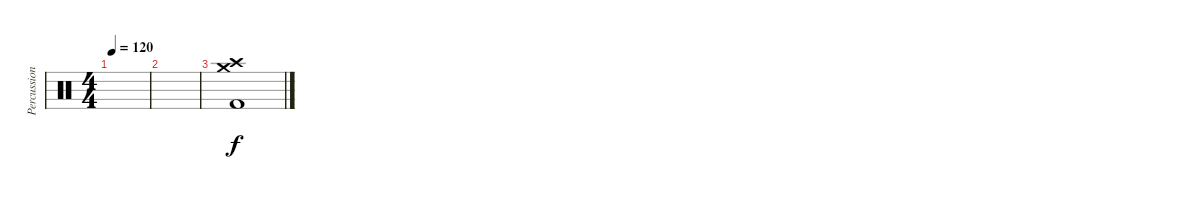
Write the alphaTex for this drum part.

\track ("Percussion" "Percussion") {instrument percussion}
\staff {score}
\articulation defaults
\ts (4 4)
\tempo 120
\clef neutral
\ks c
|
|
("Kick (hit) 2" "Crash high (hit)" "Crash medium (hit)").1
